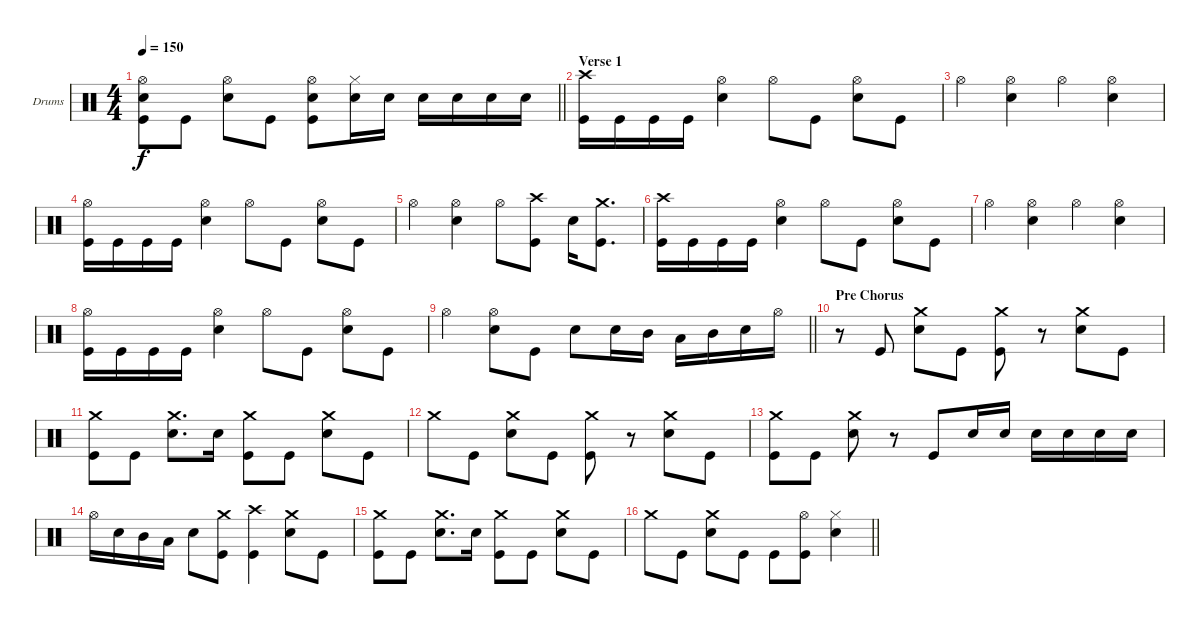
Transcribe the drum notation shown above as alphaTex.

\bracketExtendMode groupsimilarinstruments
\firstSystemTrackNameOrientation horizontal
\otherSystemsTrackNameOrientation horizontal
\track ("Drumkit" "Drums") {instrument percussion}
\staff {score}
\articulation defaults
\ts (4 4)
\tempo 150
\clef neutral
\barLineRight lightlight
\ks c
("Hi-Hat (open)" "Snare (hit) 2" "Kick (hit)").8{dy f} "Kick (hit)".8 ("Hi-Hat (open)" "Snare (hit) 2").8 "Kick (hit)".8 ("Hi-Hat (open)" "Snare (hit) 2" "Kick (hit)").8 ("Hi-Hat (closed)" "Snare (hit) 2").16 "Snare (hit) 2".16 "Snare (hit) 2".16 "Snare (hit) 2".16 "Snare (hit) 2".16 "Snare (hit) 2".16 |
\section ("" "Verse 1")
("Crash high (hit)" "Kick (hit)").16 "Kick (hit)".16 "Kick (hit)".16 "Kick (hit)".16 ("Hi-Hat (open)" "Snare (hit) 2").4 "Hi-Hat (open)".8 "Kick (hit)".8 ("Hi-Hat (open)" "Snare (hit) 2").8 "Kick (hit)".8 |
"Hi-Hat (open)".4 ("Hi-Hat (open)" "Snare (hit) 2").4 "Hi-Hat (open)".4 ("Hi-Hat (open)" "Snare (hit) 2").4 |
("Hi-Hat (open)" "Kick (hit)").16 "Kick (hit)".16 "Kick (hit)".16 "Kick (hit)".16 ("Hi-Hat (open)" "Snare (hit) 2").4 "Hi-Hat (open)".8 "Kick (hit)".8 ("Hi-Hat (open)" "Snare (hit) 2").8 "Kick (hit)".8 |
"Hi-Hat (open)".4 ("Hi-Hat (open)" "Snare (hit) 2").4 "Hi-Hat (open)".8 ("Crash high (hit)" "Kick (hit)").8 "Snare (hit) 2".16 ("Crash medium (hit)" "Kick (hit)").8{d} |
("Crash high (hit)" "Kick (hit)").16 "Kick (hit)".16 "Kick (hit)".16 "Kick (hit)".16 ("Hi-Hat (open)" "Snare (hit) 2").4 "Hi-Hat (open)".8 "Kick (hit)".8 ("Hi-Hat (open)" "Snare (hit) 2").8 "Kick (hit)".8 |
"Hi-Hat (open)".4 ("Hi-Hat (open)" "Snare (hit) 2").4 "Hi-Hat (open)".4 ("Hi-Hat (open)" "Snare (hit) 2").4 |
("Hi-Hat (open)" "Kick (hit)").16 "Kick (hit)".16 "Kick (hit)".16 "Kick (hit)".16 ("Hi-Hat (open)" "Snare (hit) 2").4 "Hi-Hat (open)".8 "Kick (hit)".8 ("Hi-Hat (open)" "Snare (hit) 2").8 "Kick (hit)".8 |
\barLineRight lightlight "Hi-Hat (open)".4
("Hi-Hat (open)" "Snare (hit) 2").8 "Kick (hit)".8 "Snare (hit) 2".8 "Snare (hit) 2".16 "Mid Tom (hit)".16 "Low Tom (hit)".16 "Mid Tom (hit)".16 "Snare (hit) 2".16 "Hi-Hat (open)".16 |
\section ("" "Pre Chorus")
r.8 "Kick (hit)".8 ("Crash medium (hit)" "Snare (hit) 2").8 "Kick (hit)".8 ("Crash medium (hit)" "Kick (hit)").8 r.8 ("Crash medium (hit)" "Snare (hit) 2").8 "Kick (hit)".8 |
("Crash medium (hit)" "Kick (hit)").8 "Kick (hit)".8 ("Crash medium (hit)" "Snare (hit) 2").8{d} "Snare (hit) 2".16 ("Crash medium (hit)" "Kick (hit)").8 "Kick (hit)".8 ("Crash medium (hit)" "Snare (hit) 2").8 "Kick (hit)".8 |
"Crash medium (hit)".8 "Kick (hit)".8 ("Crash medium (hit)" "Snare (hit) 2").8 "Kick (hit)".8 ("Crash medium (hit)" "Kick (hit)").8 r.8 ("Crash medium (hit)" "Snare (hit) 2").8 "Kick (hit)".8 |
("Crash medium (hit)" "Kick (hit)").8 "Kick (hit)".8 ("Crash medium (hit)" "Snare (hit) 2").8 r.8 "Kick (hit)".8 "Snare (hit) 2".16 "Snare (hit) 2".16 "Snare (hit) 2".16 "Snare (hit) 2".16 "Snare (hit) 2".16 "Snare (hit) 2".16 |
"Hi-Hat (open)".16 "Snare (hit) 2".16 "Mid Tom (hit)".16 "Low Tom (hit)".16 "Snare (hit) 2".8 ("Crash medium (hit)" "Kick (hit)").8 ("Crash high (hit)" "Kick (hit)").4 ("Crash medium (hit)" "Snare (hit) 2").8 "Kick (hit)".8 |
("Crash medium (hit)" "Kick (hit)").8 "Kick (hit)".8 ("Crash medium (hit)" "Snare (hit) 2").8{d} "Snare (hit) 2".16 ("Crash medium (hit)" "Kick (hit)").8 "Kick (hit)".8 ("Crash medium (hit)" "Snare (hit) 2").8 "Kick (hit)".8 |
\barLineRight lightlight "Crash medium (hit)".8 "Kick (hit)".8
("Crash medium (hit)" "Snare (hit) 2").8 "Kick (hit)".8 "Kick (hit)".8 ("Hi-Hat (open)" "Kick (hit)").8 ("Hi-Hat (closed)" "Snare (hit) 2").4
